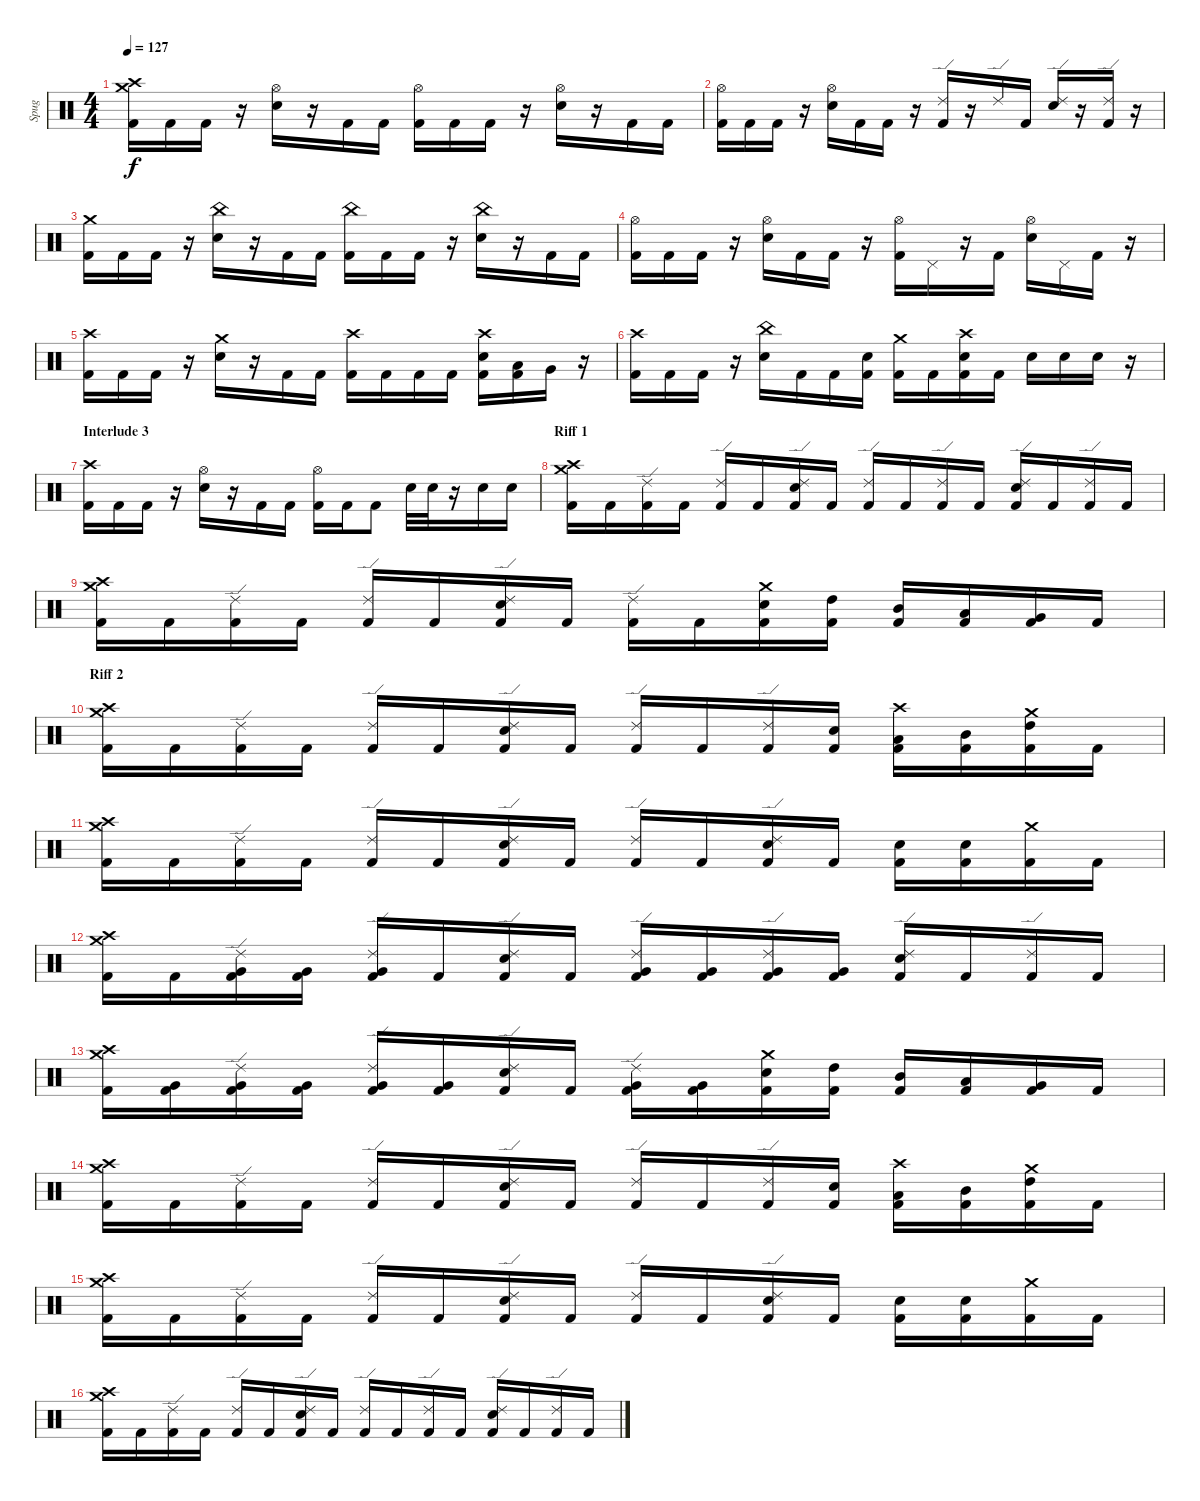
\track ("Spug" "Spug") {instrument percussion}
\staff {score}
\articulation defaults
\ts (4 4)
\tempo 127
\clef neutral
\ks c
("Crash medium (hit)" "Crash high (hit)" "Kick (hit) 2").16{dy f} "Kick (hit) 2".16 "Kick (hit) 2".16 r.16 ("Hi-Hat (open)" "Electric Snare (hit)").16 r.16 "Kick (hit) 2".16 "Kick (hit) 2".16 ("Hi-Hat (open)" "Kick (hit) 2").16 "Kick (hit) 2".16 "Kick (hit) 2".16 r.16 ("Hi-Hat (open)" "Electric Snare (hit)").16 r.16 "Kick (hit) 2".16 "Kick (hit) 2".16 |
("Hi-Hat (open)" "Kick (hit) 2").16 "Kick (hit) 2".16 "Kick (hit) 2".16 r.16 ("Hi-Hat (open)" "Electric Snare (hit)").16 "Kick (hit) 2".16 "Kick (hit) 2".16 r.16 ("Ride (edge) 2" "Kick (hit) 2").16 r.16 "Ride (edge) 2".16 "Kick (hit) 2".16 ("Ride (edge) 2" "Electric Snare (hit)").16 r.16 ("Ride (edge) 2" "Kick (hit) 2").16 r.16 |
("Crash medium (hit)" "Kick (hit) 2").16 "Kick (hit) 2".16 "Kick (hit) 2".16 r.16 ("China (hit)" "Electric Snare (hit)").16 r.16 "Kick (hit) 2".16 "Kick (hit) 2".16 ("China (hit)" "Kick (hit) 2").16 "Kick (hit) 2".16 "Kick (hit) 2".16 r.16 ("China (hit)" "Electric Snare (hit)").16 r.16 "Kick (hit) 2".16 "Kick (hit) 2".16 |
("Hi-Hat (open)" "Kick (hit) 2").16 "Kick (hit) 2".16 "Kick (hit) 2".16 r.16 ("Hi-Hat (open)" "Electric Snare (hit)").16 "Kick (hit) 2".16 "Kick (hit) 2".16 r.16 ("Hi-Hat (open)" "Kick (hit) 2").16 "Pedal Hi-Hat (hit)".16 r.16 "Kick (hit) 2".16 ("Hi-Hat (open)" "Electric Snare (hit)").16 "Pedal Hi-Hat (hit)".16 "Kick (hit) 2".16 r.16 |
("Crash high (hit)" "Kick (hit) 2").16 "Kick (hit) 2".16 "Kick (hit) 2".16 r.16 ("Crash medium (hit)" "Electric Snare (hit)").16 r.16 "Kick (hit) 2".16 "Kick (hit) 2".16 ("Crash high (hit)" "Kick (hit) 2").16 "Kick (hit) 2".16 "Kick (hit) 2".16 "Kick (hit) 2".16 ("Crash high (hit)" "Electric Snare (hit)" "Kick (hit) 2").16 ("Low Tom (hit)" "Kick (hit) 2").16 "Very Low Tom (hit)".16 r.16 |
("Crash high (hit)" "Kick (hit) 2").16 "Kick (hit) 2".16 "Kick (hit) 2".16 r.16 ("China (hit)" "Electric Snare (hit)").16 "Kick (hit) 2".16 "Kick (hit) 2".16 ("Electric Snare (hit)" "Kick (hit) 2").16 ("Crash medium (hit)" "Kick (hit) 2").16 "Kick (hit) 2".16 ("Crash high (hit)" "Electric Snare (hit)" "Kick (hit) 2").16 "Kick (hit) 2".16 "Electric Snare (hit)".16 "Electric Snare (hit)".16 "Electric Snare (hit)".16 r.16 |
\section ("" "Interlude 3")
("Crash high (hit)" "Kick (hit) 2").16 "Kick (hit) 2".16 "Kick (hit) 2".16 r.16 ("Hi-Hat (open)" "Electric Snare (hit)").16 r.16 "Kick (hit) 2".16 "Kick (hit) 2".16 ("Hi-Hat (open)" "Kick (hit) 2").16 "Kick (hit) 2".16 "Kick (hit) 2".8 "Electric Snare (hit)".32 "Electric Snare (hit)".32 r.16 "Electric Snare (hit)".16 "Electric Snare (hit)".16 |
\section ("" "Riff 1")
("Crash medium (hit)" "Crash high (hit)" "Kick (hit) 2").16 "Kick (hit) 2".16 ("Ride (edge) 2" "Kick (hit) 2").16 "Kick (hit) 2".16 ("Ride (edge) 2" "Kick (hit) 2").16 "Kick (hit) 2".16 ("Ride (edge) 2" "Electric Snare (hit)" "Kick (hit) 2").16 "Kick (hit) 2".16 ("Ride (edge) 2" "Kick (hit) 2").16 "Kick (hit) 2".16 ("Ride (edge) 2" "Kick (hit) 2").16 "Kick (hit) 2".16 ("Ride (edge) 2" "Electric Snare (hit)" "Kick (hit) 2").16 "Kick (hit) 2".16 ("Ride (edge) 2" "Kick (hit) 2").16 "Kick (hit) 2".16 |
("Crash medium (hit)" "Crash high (hit)" "Kick (hit) 2").16 "Kick (hit) 2".16 ("Ride (edge) 2" "Kick (hit) 2").16 "Kick (hit) 2".16 ("Ride (edge) 2" "Kick (hit) 2").16 "Kick (hit) 2".16 ("Ride (edge) 2" "Electric Snare (hit)" "Kick (hit) 2").16 "Kick (hit) 2".16 ("Ride (edge) 2" "Kick (hit) 2").16 "Kick (hit) 2".16 ("Crash medium (hit)" "Electric Snare (hit)" "Kick (hit) 2").16 ("High Tom (hit)" "Kick (hit) 2").16 ("Mid Tom (hit)" "Kick (hit) 2").16 ("Low Tom (hit)" "Kick (hit) 2").16 ("Very Low Tom (hit)" "Kick (hit) 2").16 "Kick (hit) 2".16 |
\section ("" "Riff 2")
("Crash medium (hit)" "Crash high (hit)" "Kick (hit) 2").16 "Kick (hit) 2".16 ("Ride (edge) 2" "Kick (hit) 2").16 "Kick (hit) 2".16 ("Ride (edge) 2" "Kick (hit) 2").16 "Kick (hit) 2".16 ("Ride (edge) 2" "Electric Snare (hit)" "Kick (hit) 2").16 "Kick (hit) 2".16 ("Ride (edge) 2" "Kick (hit) 2").16 "Kick (hit) 2".16 ("Ride (edge) 2" "Kick (hit) 2").16 ("Electric Snare (hit)" "Kick (hit) 2").16 ("Crash high (hit)" "Low Tom (hit)" "Kick (hit) 2").16 ("Mid Tom (hit)" "Kick (hit) 2").16 ("Crash medium (hit)" "High Tom (hit)" "Kick (hit) 2").16 "Kick (hit) 2".16 |
("Crash medium (hit)" "Crash high (hit)" "Kick (hit) 2").16 "Kick (hit) 2".16 ("Ride (edge) 2" "Kick (hit) 2").16 "Kick (hit) 2".16 ("Ride (edge) 2" "Kick (hit) 2").16 "Kick (hit) 2".16 ("Ride (edge) 2" "Electric Snare (hit)" "Kick (hit) 2").16 "Kick (hit) 2".16 ("Ride (edge) 2" "Kick (hit) 2").16 "Kick (hit) 2".16 ("Ride (edge) 2" "Electric Snare (hit)" "Kick (hit) 2").16 "Kick (hit) 2".16 ("Electric Snare (hit)" "Kick (hit) 2").16 ("Electric Snare (hit)" "Kick (hit) 2").16 ("Crash medium (hit)" "Kick (hit) 2").16 "Kick (hit) 2".16 |
("Crash medium (hit)" "Crash high (hit)" "Kick (hit) 2").16 "Kick (hit) 2".16 ("Ride (edge) 2" "Very Low Tom (hit)" "Kick (hit) 2").16 ("Very Low Tom (hit)" "Kick (hit) 2").16 ("Ride (edge) 2" "Very Low Tom (hit)" "Kick (hit) 2").16 "Kick (hit) 2".16 ("Ride (edge) 2" "Electric Snare (hit)" "Kick (hit) 2").16 "Kick (hit) 2".16 ("Ride (edge) 2" "Very Low Tom (hit)" "Kick (hit) 2").16 ("Very Low Tom (hit)" "Kick (hit) 2").16 ("Ride (edge) 2" "Very Low Tom (hit)" "Kick (hit) 2").16 ("Very Low Tom (hit)" "Kick (hit) 2").16 ("Ride (edge) 2" "Electric Snare (hit)" "Kick (hit) 2").16 "Kick (hit) 2".16 ("Ride (edge) 2" "Kick (hit) 2").16 "Kick (hit) 2".16 |
("Crash medium (hit)" "Crash high (hit)" "Kick (hit) 2").16 ("Very Low Tom (hit)" "Kick (hit) 2").16 ("Ride (edge) 2" "Very Low Tom (hit)" "Kick (hit) 2").16 ("Very Low Tom (hit)" "Kick (hit) 2").16 ("Ride (edge) 2" "Very Low Tom (hit)" "Kick (hit) 2").16 ("Very Low Tom (hit)" "Kick (hit) 2").16 ("Ride (edge) 2" "Electric Snare (hit)" "Kick (hit) 2").16 "Kick (hit) 2".16 ("Ride (edge) 2" "Very Low Tom (hit)" "Kick (hit) 2").16 ("Very Low Tom (hit)" "Kick (hit) 2").16 ("Crash medium (hit)" "Electric Snare (hit)" "Kick (hit) 2").16 ("High Tom (hit)" "Kick (hit) 2").16 ("Mid Tom (hit)" "Kick (hit) 2").16 ("Low Tom (hit)" "Kick (hit) 2").16 ("Very Low Tom (hit)" "Kick (hit) 2").16 "Kick (hit) 2".16 |
("Crash medium (hit)" "Crash high (hit)" "Kick (hit) 2").16 "Kick (hit) 2".16 ("Ride (edge) 2" "Kick (hit) 2").16 "Kick (hit) 2".16 ("Ride (edge) 2" "Kick (hit) 2").16 "Kick (hit) 2".16 ("Ride (edge) 2" "Electric Snare (hit)" "Kick (hit) 2").16 "Kick (hit) 2".16 ("Ride (edge) 2" "Kick (hit) 2").16 "Kick (hit) 2".16 ("Ride (edge) 2" "Kick (hit) 2").16 ("Electric Snare (hit)" "Kick (hit) 2").16 ("Crash high (hit)" "Low Tom (hit)" "Kick (hit) 2").16 ("Mid Tom (hit)" "Kick (hit) 2").16 ("Crash medium (hit)" "High Tom (hit)" "Kick (hit) 2").16 "Kick (hit) 2".16 |
("Crash medium (hit)" "Crash high (hit)" "Kick (hit) 2").16 "Kick (hit) 2".16 ("Ride (edge) 2" "Kick (hit) 2").16 "Kick (hit) 2".16 ("Ride (edge) 2" "Kick (hit) 2").16 "Kick (hit) 2".16 ("Ride (edge) 2" "Electric Snare (hit)" "Kick (hit) 2").16 "Kick (hit) 2".16 ("Ride (edge) 2" "Kick (hit) 2").16 "Kick (hit) 2".16 ("Ride (edge) 2" "Electric Snare (hit)" "Kick (hit) 2").16 "Kick (hit) 2".16 ("Electric Snare (hit)" "Kick (hit) 2").16 ("Electric Snare (hit)" "Kick (hit) 2").16 ("Crash medium (hit)" "Kick (hit) 2").16 "Kick (hit) 2".16 |
("Crash medium (hit)" "Crash high (hit)" "Kick (hit) 2").16 "Kick (hit) 2".16 ("Ride (edge) 2" "Kick (hit) 2").16 "Kick (hit) 2".16 ("Ride (edge) 2" "Kick (hit) 2").16 "Kick (hit) 2".16 ("Ride (edge) 2" "Electric Snare (hit)" "Kick (hit) 2").16 "Kick (hit) 2".16 ("Ride (edge) 2" "Kick (hit) 2").16 "Kick (hit) 2".16 ("Ride (edge) 2" "Kick (hit) 2").16 "Kick (hit) 2".16 ("Ride (edge) 2" "Electric Snare (hit)" "Kick (hit) 2").16 "Kick (hit) 2".16 ("Ride (edge) 2" "Kick (hit) 2").16 "Kick (hit) 2".16
